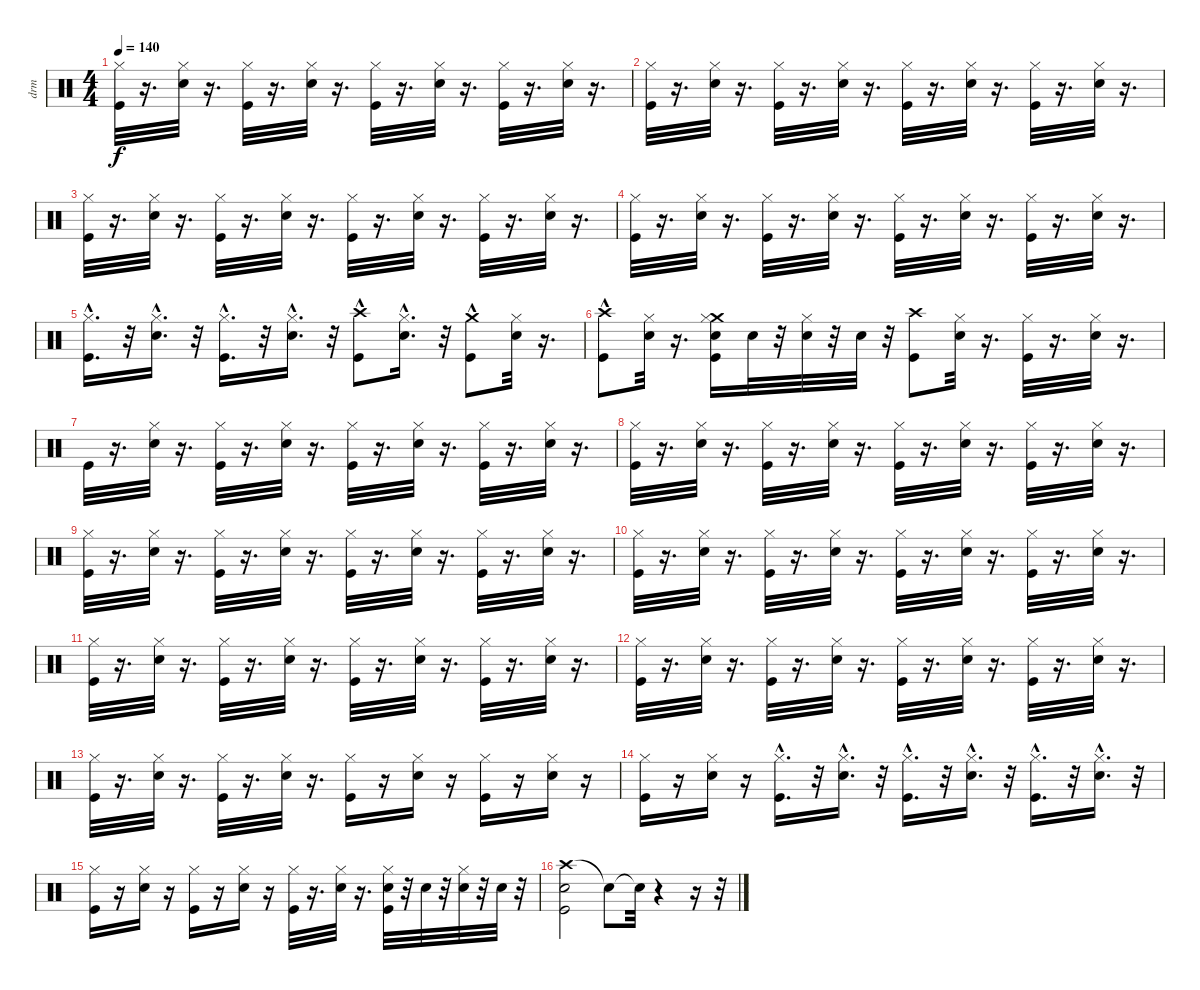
\track ("drm" "drm") {instrument percussion}
\staff {score}
\articulation defaults
\ts (4 4)
\tempo 140
\clef neutral
\ks c
("Kick (hit)" "Hi-Hat (closed)").32{dy f} r.16{d} ("Snare (hit) 2" "Hi-Hat (closed)").32 r.16{d} ("Kick (hit)" "Hi-Hat (closed)").32 r.16{d} ("Snare (hit) 2" "Hi-Hat (closed)").32 r.16{d} ("Kick (hit)" "Hi-Hat (closed)").32 r.16{d} ("Snare (hit) 2" "Hi-Hat (closed)").32 r.16{d} ("Kick (hit)" "Hi-Hat (closed)").32 r.16{d} ("Snare (hit) 2" "Hi-Hat (closed)").32 r.16{d} |
("Kick (hit)" "Hi-Hat (closed)").32 r.16{d} ("Snare (hit) 2" "Hi-Hat (closed)").32 r.16{d} ("Kick (hit)" "Hi-Hat (closed)").32 r.16{d} ("Snare (hit) 2" "Hi-Hat (closed)").32 r.16{d} ("Kick (hit)" "Hi-Hat (closed)").32 r.16{d} ("Snare (hit) 2" "Hi-Hat (closed)").32 r.16{d} ("Kick (hit)" "Hi-Hat (closed)").32 r.16{d} ("Snare (hit) 2" "Hi-Hat (closed)").32 r.16{d} |
("Kick (hit)" "Hi-Hat (closed)").32 r.16{d} ("Snare (hit) 2" "Hi-Hat (closed)").32 r.16{d} ("Kick (hit)" "Hi-Hat (closed)").32 r.16{d} ("Snare (hit) 2" "Hi-Hat (closed)").32 r.16{d} ("Kick (hit)" "Hi-Hat (closed)").32 r.16{d} ("Snare (hit) 2" "Hi-Hat (closed)").32 r.16{d} ("Kick (hit)" "Hi-Hat (closed)").32 r.16{d} ("Snare (hit) 2" "Hi-Hat (closed)").32 r.16{d} |
("Kick (hit)" "Hi-Hat (closed)").32 r.16{d} ("Snare (hit) 2" "Hi-Hat (closed)").32 r.16{d} ("Kick (hit)" "Hi-Hat (closed)").32 r.16{d} ("Snare (hit) 2" "Hi-Hat (closed)").32 r.16{d} ("Kick (hit)" "Hi-Hat (closed)").32 r.16{d} ("Snare (hit) 2" "Hi-Hat (closed)").32 r.16{d} ("Kick (hit)" "Hi-Hat (closed)").32 r.16{d} ("Snare (hit) 2" "Hi-Hat (closed)").32 r.16{d} |
("Kick (hit)"{hac} "Hi-Hat (closed)"{hac}).16{d} r.32 ("Snare (hit) 2"{hac} "Hi-Hat (closed)"{hac}).16{d} r.32 ("Kick (hit)"{hac} "Hi-Hat (closed)"{hac}).16{d} r.32 ("Snare (hit) 2"{hac} "Hi-Hat (closed)"{hac}).16{d} r.32 ("Crash high (hit)" "Kick (hit)"{hac}).8 ("Snare (hit) 2"{hac} "Hi-Hat (closed)"{hac}).16{d} r.32 ("Crash medium (hit)" "Kick (hit)"{hac}).8 ("Snare (hit) 2" "Hi-Hat (closed)").32 r.16{d} |
("Crash high (hit)" "Kick (hit)"{hac}).8 ("Snare (hit) 2" "Hi-Hat (closed)").32 r.16{d} ("Snare (hit) 2" "Crash medium (hit)" "Kick (hit)" "Hi-Hat (closed)").16 "Snare (hit) 2".32 r.32 ("Snare (hit) 2" "Hi-Hat (closed)").32 r.32 "Snare (hit) 2".32 r.32 ("Crash high (hit)" "Kick (hit)").8 ("Hi-Hat (closed)" "Snare (hit) 2").32 r.16{d} ("Hi-Hat (closed)" "Kick (hit)").32 r.16{d} ("Hi-Hat (closed)" "Snare (hit) 2").32 r.16{d} |
"Kick (hit)".32 r.16{d} ("Snare (hit) 2" "Hi-Hat (closed)").32 r.16{d} ("Kick (hit)" "Hi-Hat (closed)").32 r.16{d} ("Snare (hit) 2" "Hi-Hat (closed)").32 r.16{d} ("Kick (hit)" "Hi-Hat (closed)").32 r.16{d} ("Snare (hit) 2" "Hi-Hat (closed)").32 r.16{d} ("Kick (hit)" "Hi-Hat (closed)").32 r.16{d} ("Snare (hit) 2" "Hi-Hat (closed)").32 r.16{d} |
("Kick (hit)" "Hi-Hat (closed)").32 r.16{d} ("Snare (hit) 2" "Hi-Hat (closed)").32 r.16{d} ("Kick (hit)" "Hi-Hat (closed)").32 r.16{d} ("Snare (hit) 2" "Hi-Hat (closed)").32 r.16{d} ("Kick (hit)" "Hi-Hat (closed)").32 r.16{d} ("Snare (hit) 2" "Hi-Hat (closed)").32 r.16{d} ("Kick (hit)" "Hi-Hat (closed)").32 r.16{d} ("Snare (hit) 2" "Hi-Hat (closed)").32 r.16{d} |
("Kick (hit)" "Hi-Hat (closed)").32 r.16{d} ("Snare (hit) 2" "Hi-Hat (closed)").32 r.16{d} ("Kick (hit)" "Hi-Hat (closed)").32 r.16{d} ("Snare (hit) 2" "Hi-Hat (closed)").32 r.16{d} ("Kick (hit)" "Hi-Hat (closed)").32 r.16{d} ("Snare (hit) 2" "Hi-Hat (closed)").32 r.16{d} ("Kick (hit)" "Hi-Hat (closed)").32 r.16{d} ("Snare (hit) 2" "Hi-Hat (closed)").32 r.16{d} |
("Kick (hit)" "Hi-Hat (closed)").32 r.16{d} ("Snare (hit) 2" "Hi-Hat (closed)").32 r.16{d} ("Kick (hit)" "Hi-Hat (closed)").32 r.16{d} ("Snare (hit) 2" "Hi-Hat (closed)").32 r.16{d} ("Kick (hit)" "Hi-Hat (closed)").32 r.16{d} ("Snare (hit) 2" "Hi-Hat (closed)").32 r.16{d} ("Kick (hit)" "Hi-Hat (closed)").32 r.16{d} ("Snare (hit) 2" "Hi-Hat (closed)").32 r.16{d} |
("Kick (hit)" "Hi-Hat (closed)").32 r.16{d} ("Snare (hit) 2" "Hi-Hat (closed)").32 r.16{d} ("Kick (hit)" "Hi-Hat (closed)").32 r.16{d} ("Snare (hit) 2" "Hi-Hat (closed)").32 r.16{d} ("Kick (hit)" "Hi-Hat (closed)").32 r.16{d} ("Snare (hit) 2" "Hi-Hat (closed)").32 r.16{d} ("Kick (hit)" "Hi-Hat (closed)").32 r.16{d} ("Snare (hit) 2" "Hi-Hat (closed)").32 r.16{d} |
("Kick (hit)" "Hi-Hat (closed)").32 r.16{d} ("Snare (hit) 2" "Hi-Hat (closed)").32 r.16{d} ("Kick (hit)" "Hi-Hat (closed)").32 r.16{d} ("Snare (hit) 2" "Hi-Hat (closed)").32 r.16{d} ("Kick (hit)" "Hi-Hat (closed)").32 r.16{d} ("Snare (hit) 2" "Hi-Hat (closed)").32 r.16{d} ("Kick (hit)" "Hi-Hat (closed)").32 r.16{d} ("Snare (hit) 2" "Hi-Hat (closed)").32 r.16{d} |
("Kick (hit)" "Hi-Hat (closed)").32 r.16{d} ("Snare (hit) 2" "Hi-Hat (closed)").32 r.16{d} ("Kick (hit)" "Hi-Hat (closed)").32 r.16{d} ("Snare (hit) 2" "Hi-Hat (closed)").32 r.16{d} ("Kick (hit)" "Hi-Hat (closed)").16 r.16 ("Snare (hit) 2" "Hi-Hat (closed)").16 r.16 ("Kick (hit)" "Hi-Hat (closed)").16 r.16 ("Snare (hit) 2" "Hi-Hat (closed)").16 r.16 |
("Kick (hit)" "Hi-Hat (closed)").16 r.16 ("Hi-Hat (closed)" "Snare (hit) 2").16 r.16 ("Kick (hit)"{hac} "Hi-Hat (closed)"{hac}).16{d} r.32 ("Snare (hit) 2" "Hi-Hat (closed)"{hac}).16{d} r.32 ("Kick (hit)"{hac} "Hi-Hat (closed)"{hac}).16{d} r.32 ("Hi-Hat (closed)" "Snare (hit) 2"{hac}).16{d} r.32 ("Kick (hit)" "Hi-Hat (closed)"{hac}).16{d} r.32 ("Hi-Hat (closed)" "Snare (hit) 2"{hac}).16{d} r.32 |
("Kick (hit)" "Hi-Hat (closed)").16 r.16 ("Snare (hit) 2" "Hi-Hat (closed)").16 r.16 ("Kick (hit)" "Hi-Hat (closed)").16 r.16 ("Snare (hit) 2" "Hi-Hat (closed)").16 r.16 ("Hi-Hat (closed)" "Kick (hit)").32 r.16{d} ("Hi-Hat (closed)" "Snare (hit) 2").32 r.16{d} ("Snare (hit) 2" "Hi-Hat (closed)" "Kick (hit)").32 r.32 "Snare (hit) 2".32 r.32 ("Hi-Hat (closed)" "Snare (hit) 2").32 r.32 "Snare (hit) 2".32 r.32 |
("Crash high (hit)" "Kick (hit)" "Snare (hit) 2").2 "Snare (hit)"{t}.8 "Snare (hit)"{t}.32 r.4 r.16 r.32
